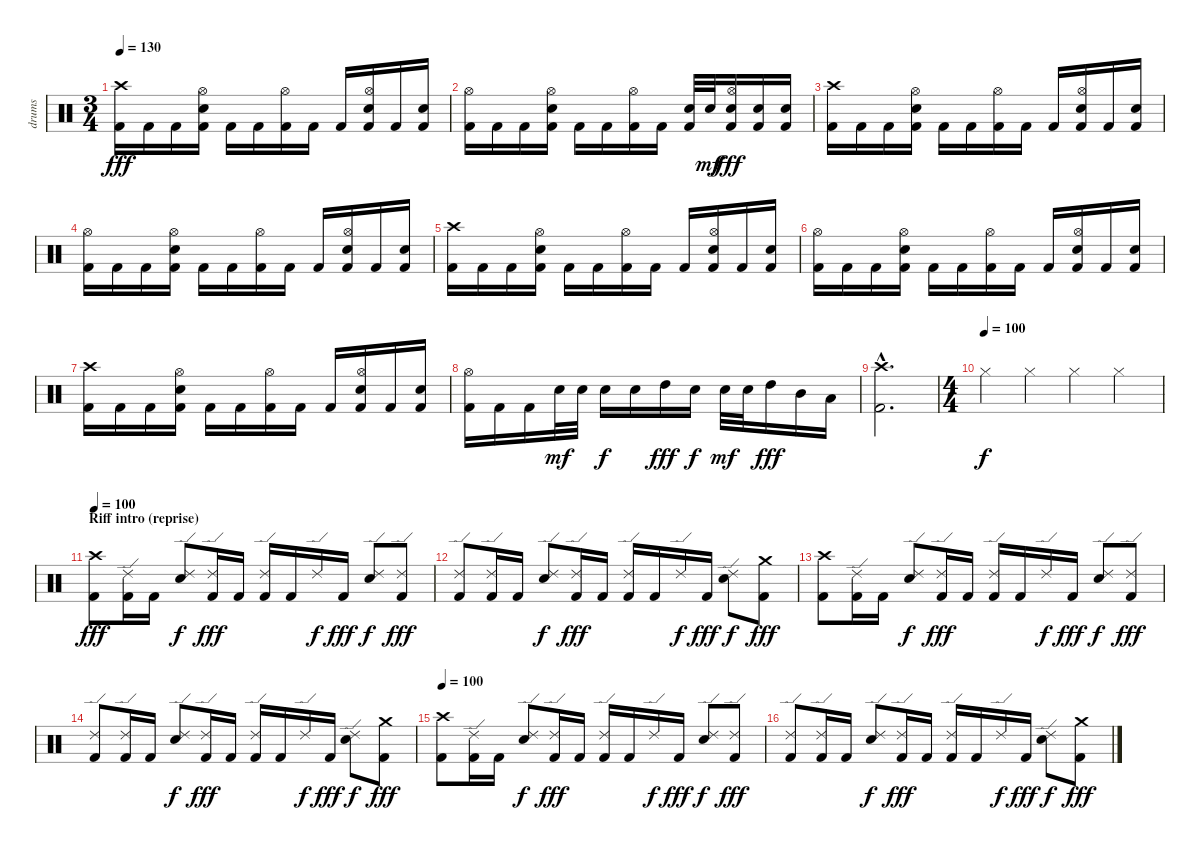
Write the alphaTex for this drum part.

\track ("drums" "drums") {instrument percussion}
\staff {score}
\articulation defaults
\ts (3 4)
\tempo 130
\clef neutral
\ks c
("Crash high (hit)" "Kick (hit) 2").16{dy fff} "Kick (hit) 2".16 "Kick (hit) 2".16 ("Hi-Hat (open)" "Snare (hit) 2" "Kick (hit) 2").16 "Kick (hit) 2".16 "Kick (hit) 2".16 ("Hi-Hat (open)" "Kick (hit) 2").16 "Kick (hit) 2".16 "Kick (hit) 2".16 ("Hi-Hat (open)" "Snare (hit) 2" "Kick (hit) 2").16 "Kick (hit) 2".16 ("Snare (hit) 2" "Kick (hit) 2").16 |
("Hi-Hat (open)" "Kick (hit) 2").16 "Kick (hit) 2".16 "Kick (hit) 2".16 ("Hi-Hat (open)" "Snare (hit) 2" "Kick (hit) 2").16 "Kick (hit) 2".16 "Kick (hit) 2".16 ("Hi-Hat (open)" "Kick (hit) 2").16 "Kick (hit) 2".16 ("Snare (hit) 2" "Kick (hit) 2").32 "Snare (hit) 2".32{dy mf} ("Hi-Hat (open)" "Snare (hit) 2" "Kick (hit) 2").16{dy fff} ("Snare (hit) 2" "Kick (hit) 2").16 ("Snare (hit) 2" "Kick (hit) 2").16 |
("Crash high (hit)" "Kick (hit) 2").16 "Kick (hit) 2".16 "Kick (hit) 2".16 ("Hi-Hat (open)" "Snare (hit) 2" "Kick (hit) 2").16 "Kick (hit) 2".16 "Kick (hit) 2".16 ("Hi-Hat (open)" "Kick (hit) 2").16 "Kick (hit) 2".16 "Kick (hit) 2".16 ("Hi-Hat (open)" "Snare (hit) 2" "Kick (hit) 2").16 "Kick (hit) 2".16 ("Snare (hit) 2" "Kick (hit) 2").16 |
("Hi-Hat (open)" "Kick (hit) 2").16 "Kick (hit) 2".16 "Kick (hit) 2".16 ("Hi-Hat (open)" "Snare (hit) 2" "Kick (hit) 2").16 "Kick (hit) 2".16 "Kick (hit) 2".16 ("Hi-Hat (open)" "Kick (hit) 2").16 "Kick (hit) 2".16 "Kick (hit) 2".16 ("Hi-Hat (open)" "Snare (hit) 2" "Kick (hit) 2").16 "Kick (hit) 2".16 ("Snare (hit) 2" "Kick (hit) 2").16 |
("Crash high (hit)" "Kick (hit) 2").16 "Kick (hit) 2".16 "Kick (hit) 2".16 ("Hi-Hat (open)" "Snare (hit) 2" "Kick (hit) 2").16 "Kick (hit) 2".16 "Kick (hit) 2".16 ("Hi-Hat (open)" "Kick (hit) 2").16 "Kick (hit) 2".16 "Kick (hit) 2".16 ("Hi-Hat (open)" "Snare (hit) 2" "Kick (hit) 2").16 "Kick (hit) 2".16 ("Snare (hit) 2" "Kick (hit) 2").16 |
("Hi-Hat (open)" "Kick (hit) 2").16 "Kick (hit) 2".16 "Kick (hit) 2".16 ("Hi-Hat (open)" "Snare (hit) 2" "Kick (hit) 2").16 "Kick (hit) 2".16 "Kick (hit) 2".16 ("Hi-Hat (open)" "Kick (hit) 2").16 "Kick (hit) 2".16 "Kick (hit) 2".16 ("Hi-Hat (open)" "Snare (hit) 2" "Kick (hit) 2").16 "Kick (hit) 2".16 ("Snare (hit) 2" "Kick (hit) 2").16 |
("Crash high (hit)" "Kick (hit) 2").16 "Kick (hit) 2".16 "Kick (hit) 2".16 ("Hi-Hat (open)" "Snare (hit) 2" "Kick (hit) 2").16 "Kick (hit) 2".16 "Kick (hit) 2".16 ("Hi-Hat (open)" "Kick (hit) 2").16 "Kick (hit) 2".16 "Kick (hit) 2".16 ("Hi-Hat (open)" "Snare (hit) 2" "Kick (hit) 2").16 "Kick (hit) 2".16 ("Snare (hit) 2" "Kick (hit) 2").16 |
("Hi-Hat (open)" "Kick (hit) 2").16 "Kick (hit) 2".16 "Kick (hit) 2".16 "Snare (hit) 2".32{dy mf} "Snare (hit) 2".32 "Snare (hit) 2".16{dy f} "Snare (hit) 2".16 "High Tom (hit)".16{dy fff} "Snare (hit) 2".16{dy f} "Snare (hit) 2".32{dy mf} "Snare (hit) 2".32 "High Tom (hit)".16{dy fff} "Mid Tom (hit)".16 "Low Tom (hit)".16 |
("Crash high (hit)"{hac} "Kick (hit) 2"{hac}).2{d} |
\ts (4 4)
\tempo (100)
"Hi-Hat (closed)".4{dy f} "Hi-Hat (closed)".4 "Hi-Hat (closed)".4 "Hi-Hat (closed)".4 |
\section ("" "Riff intro (reprise)")
\tempo 100
("Crash high (hit)" "Kick (hit) 2").8{dy fff} ("Ride (edge) 2" "Kick (hit) 2").16 "Kick (hit) 2".16 ("Ride (edge) 2" "Snare (hit) 2").8{dy f} ("Ride (edge) 2" "Kick (hit) 2").16{dy fff} "Kick (hit) 2".16 ("Ride (edge) 2" "Kick (hit) 2").16 "Kick (hit) 2".16 "Ride (edge) 2".16{dy f} "Kick (hit) 2".16{dy fff} ("Ride (edge) 2" "Snare (hit) 2").8{dy f} ("Ride (edge) 2" "Kick (hit) 2").8{dy fff} |
("Ride (edge) 2" "Kick (hit) 2").8 ("Ride (edge) 2" "Kick (hit) 2").16 "Kick (hit) 2".16 ("Ride (edge) 2" "Snare (hit) 2").8{dy f} ("Ride (edge) 2" "Kick (hit) 2").16{dy fff} "Kick (hit) 2".16 ("Ride (edge) 2" "Kick (hit) 2").16 "Kick (hit) 2".16 "Ride (edge) 2".16{dy f} "Kick (hit) 2".16{dy fff} ("Ride (edge) 2" "Snare (hit) 2").8{dy f} ("Crash medium (hit)" "Kick (hit) 2").8{dy fff} |
("Crash high (hit)" "Kick (hit) 2").8 ("Ride (edge) 2" "Kick (hit) 2").16 "Kick (hit) 2".16 ("Ride (edge) 2" "Snare (hit) 2").8{dy f} ("Ride (edge) 2" "Kick (hit) 2").16{dy fff} "Kick (hit) 2".16 ("Ride (edge) 2" "Kick (hit) 2").16 "Kick (hit) 2".16 "Ride (edge) 2".16{dy f} "Kick (hit) 2".16{dy fff} ("Ride (edge) 2" "Snare (hit) 2").8{dy f} ("Ride (edge) 2" "Kick (hit) 2").8{dy fff} |
("Ride (edge) 2" "Kick (hit) 2").8 ("Ride (edge) 2" "Kick (hit) 2").16 "Kick (hit) 2".16 ("Ride (edge) 2" "Snare (hit) 2").8{dy f} ("Ride (edge) 2" "Kick (hit) 2").16{dy fff} "Kick (hit) 2".16 ("Ride (edge) 2" "Kick (hit) 2").16 "Kick (hit) 2".16 "Ride (edge) 2".16{dy f} "Kick (hit) 2".16{dy fff} ("Ride (edge) 2" "Snare (hit) 2").8{dy f} ("Crash medium (hit)" "Kick (hit) 2").8{dy fff} |
\tempo 100
("Crash high (hit)" "Kick (hit) 2").8 ("Ride (edge) 2" "Kick (hit) 2").16 "Kick (hit) 2".16 ("Ride (edge) 2" "Snare (hit) 2").8{dy f} ("Ride (edge) 2" "Kick (hit) 2").16{dy fff} "Kick (hit) 2".16 ("Ride (edge) 2" "Kick (hit) 2").16 "Kick (hit) 2".16 "Ride (edge) 2".16{dy f} "Kick (hit) 2".16{dy fff} ("Ride (edge) 2" "Snare (hit) 2").8{dy f} ("Ride (edge) 2" "Kick (hit) 2").8{dy fff} |
("Ride (edge) 2" "Kick (hit) 2").8 ("Ride (edge) 2" "Kick (hit) 2").16 "Kick (hit) 2".16 ("Ride (edge) 2" "Snare (hit) 2").8{dy f} ("Ride (edge) 2" "Kick (hit) 2").16{dy fff} "Kick (hit) 2".16 ("Ride (edge) 2" "Kick (hit) 2").16 "Kick (hit) 2".16 "Ride (edge) 2".16{dy f} "Kick (hit) 2".16{dy fff} ("Ride (edge) 2" "Snare (hit) 2").8{dy f} ("Crash medium (hit)" "Kick (hit) 2").8{dy fff}
